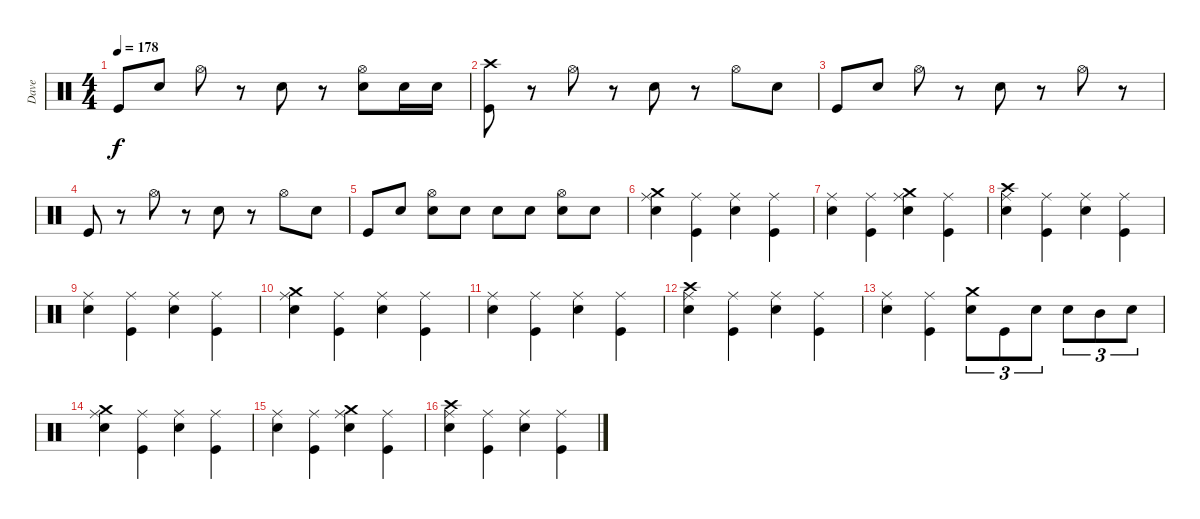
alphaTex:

\track ("Dave" "Dave") {instrument percussion}
\staff {score}
\articulation defaults
\ts (4 4)
\tempo 178
\clef neutral
\ks c "Kick (hit)".8{dy f} "Snare (hit) 2".8 "Hi-Hat (open)".8
r.8 "Snare (hit) 2".8 r.8 ("Hi-Hat (open)" "Snare (hit) 2").8 "Snare (hit) 2".16 "Snare (hit) 2".16 |
("Crash high (hit)" "Kick (hit)").8 r.8 "Hi-Hat (open)".8 r.8 "Snare (hit) 2".8 r.8 "Hi-Hat (open)".8 "Snare (hit) 2".8 |
"Kick (hit)".8 "Snare (hit) 2".8 "Hi-Hat (open)".8 r.8 "Snare (hit) 2".8 r.8 "Hi-Hat (open)".8 r.8 |
"Kick (hit)".8 r.8 "Hi-Hat (open)".8 r.8 "Snare (hit) 2".8 r.8 "Hi-Hat (open)".8 "Snare (hit) 2".8 |
"Kick (hit)".8 "Snare (hit) 2".8 ("Hi-Hat (open)" "Snare (hit) 2").8 "Snare (hit) 2".8 "Snare (hit) 2".8 "Snare (hit) 2".8 ("Hi-Hat (open)" "Snare (hit) 2").8 "Snare (hit) 2".8 |
("Crash medium (hit)" "Ride (middle)" "Snare (hit) 2").4 ("Ride (middle)" "Kick (hit)").4 ("Ride (middle)" "Snare (hit) 2").4 ("Ride (middle)" "Kick (hit)").4 |
("Ride (middle)" "Snare (hit) 2").4 ("Ride (middle)" "Kick (hit)").4 ("Crash medium (hit)" "Ride (middle)" "Snare (hit) 2").4 ("Ride (middle)" "Kick (hit)").4 |
("Crash high (hit)" "Ride (middle)" "Snare (hit) 2").4 ("Ride (middle)" "Kick (hit)").4 ("Ride (middle)" "Snare (hit) 2").4 ("Ride (middle)" "Kick (hit)").4 |
("Ride (middle)" "Snare (hit) 2").4 ("Ride (middle)" "Kick (hit)").4 ("Ride (middle)" "Snare (hit) 2").4 ("Ride (middle)" "Kick (hit)").4 |
("Crash medium (hit)" "Ride (middle)" "Snare (hit) 2").4 ("Ride (middle)" "Kick (hit)").4 ("Ride (middle)" "Snare (hit) 2").4 ("Ride (middle)" "Kick (hit)").4 |
("Ride (middle)" "Snare (hit) 2").4 ("Ride (middle)" "Kick (hit)").4 ("Ride (middle)" "Snare (hit) 2").4 ("Ride (middle)" "Kick (hit)").4 |
("Crash high (hit)" "Ride (middle)" "Snare (hit) 2").4 ("Ride (middle)" "Kick (hit)").4 ("Ride (middle)" "Snare (hit) 2").4 ("Ride (middle)" "Kick (hit)").4 |
("Ride (middle)" "Snare (hit) 2").4 ("Ride (middle)" "Kick (hit)").4 ("Crash medium (hit)" "Snare (hit) 2").8{tu (3 2)} "Kick (hit)".8{tu (3 2)} "Snare (hit) 2".8{tu (3 2)} "Snare (hit) 2".8{tu (3 2)} "Mid Tom (hit)".8{tu (3 2)} "Snare (hit) 2".8{tu (3 2)} |
("Crash medium (hit)" "Ride (middle)" "Snare (hit) 2").4 ("Ride (middle)" "Kick (hit)").4 ("Ride (middle)" "Snare (hit) 2").4 ("Ride (middle)" "Kick (hit)").4 |
("Ride (middle)" "Snare (hit) 2").4 ("Ride (middle)" "Kick (hit)").4 ("Crash medium (hit)" "Ride (middle)" "Snare (hit) 2").4 ("Ride (middle)" "Kick (hit)").4 |
("Crash high (hit)" "Ride (middle)" "Snare (hit) 2").4 ("Ride (middle)" "Kick (hit)").4 ("Ride (middle)" "Snare (hit) 2").4 ("Ride (middle)" "Kick (hit)").4
